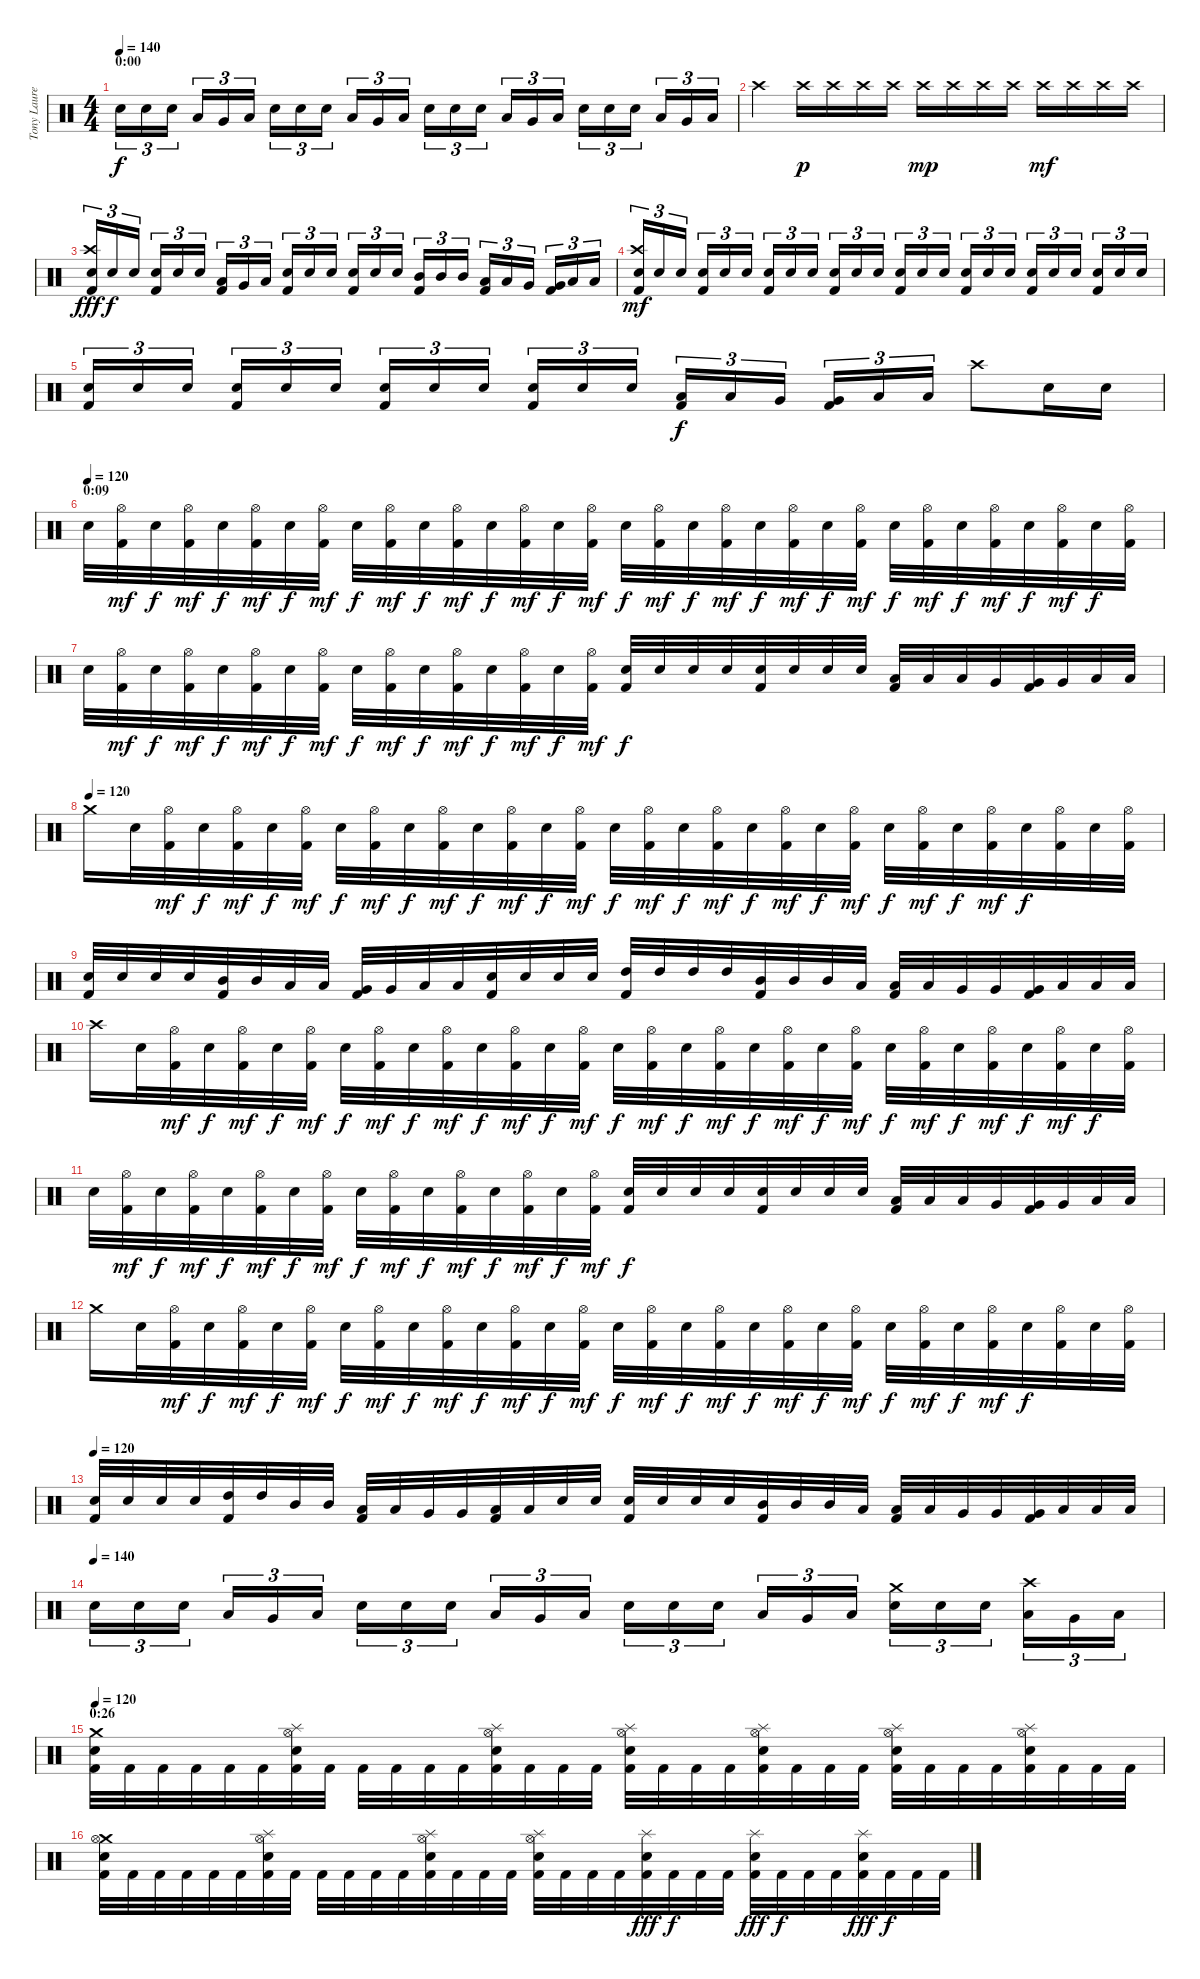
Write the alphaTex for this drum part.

\track ("Tony Laureano" "Tony Laure") {instrument percussion}
\staff {score}
\articulation defaults
\ts (4 4)
\section ("" "0:00")
\tempo 140
\clef neutral
\ks c "Electric Snare (hit)".16{tu (3 2) dy f} "Electric Snare (hit)".16{tu (3 2)} "Electric Snare (hit)".16{tu (3 2)} "Low Tom (hit)".16{tu (3 2)} "Very Low Tom (hit)".16{tu (3 2)} "Low Floor Tom (hit)".16{tu (3 2)} "Electric Snare (hit)".16{tu (3 2)} "Electric Snare (hit)".16{tu (3 2)} "Electric Snare (hit)".16{tu (3 2)} "Low Tom (hit)".16{tu (3 2)} "Very Low Tom (hit)".16{tu (3 2)} "Low Floor Tom (hit)".16{tu (3 2)} "Electric Snare (hit)".16{tu (3 2)} "Electric Snare (hit)".16{tu (3 2)} "Electric Snare (hit)".16{tu (3 2)} "Low Tom (hit)".16{tu (3 2)} "Very Low Tom (hit)".16{tu (3 2)} "Low Floor Tom (hit)".16{tu (3 2)} "Electric Snare (hit)".16{tu (3 2)} "Electric Snare (hit)".16{tu (3 2)} "Electric Snare (hit)".16{tu (3 2)} "Low Tom (hit)".16{tu (3 2)} "Very Low Tom (hit)".16{tu (3 2)} "Low Floor Tom (hit)".16{tu (3 2)}
|
"Crash high (hit)".4 "Crash high (hit)".16{dy p} "Crash high (hit)".16 "Crash high (hit)".16 "Crash high (hit)".16 "Crash high (hit)".16{dy mp} "Crash high (hit)".16 "Crash high (hit)".16 "Crash high (hit)".16 "Crash high (hit)".16{dy mf} "Crash high (hit)".16 "Crash high (hit)".16 "Crash high (hit)".16 |
("Crash high (hit)" "Electric Snare (hit)" "Kick (hit) 2").16{tu (3 2) dy fff} "Electric Snare (hit)".16{tu (3 2) dy f} "Electric Snare (hit)".16{tu (3 2)} ("Electric Snare (hit)" "Kick (hit) 2").16{tu (3 2)} "Electric Snare (hit)".16{tu (3 2)} "Electric Snare (hit)".16{tu (3 2)} ("Low Tom (hit)" "Kick (hit) 2").16{tu (3 2)} "Very Low Tom (hit)".16{tu (3 2)} "Low Floor Tom (hit)".16{tu (3 2)} ("Electric Snare (hit)" "Kick (hit) 2").16{tu (3 2)} "Electric Snare (hit)".16{tu (3 2)} "Electric Snare (hit)".16{tu (3 2)} ("Electric Snare (hit)" "Kick (hit) 2").16{tu (3 2)} "Electric Snare (hit)".16{tu (3 2)} "Electric Snare (hit)".16{tu (3 2)} ("Mid Tom (hit)" "Kick (hit) 2").16{tu (3 2)} "Mid Tom (hit)".16{tu (3 2)} "Mid Tom (hit)".16{tu (3 2)} ("Low Tom (hit)" "Kick (hit) 2").16{tu (3 2)} "Low Tom (hit)".16{tu (3 2)} "Very Low Tom (hit)".16{tu (3 2)} ("Very Low Tom (hit)" "Kick (hit) 2").16{tu (3 2)} "Low Floor Tom (hit)".16{tu (3 2)} "Low Floor Tom (hit)".16{tu (3 2)} |
("Crash high (hit)" "Electric Snare (hit)" "Kick (hit) 2").16{tu (3 2) dy mf} "Electric Snare (hit)".16{tu (3 2)} "Electric Snare (hit)".16{tu (3 2)} ("Electric Snare (hit)" "Kick (hit) 2").16{tu (3 2)} "Electric Snare (hit)".16{tu (3 2)} "Electric Snare (hit)".16{tu (3 2)} ("Electric Snare (hit)" "Kick (hit) 2").16{tu (3 2)} "Electric Snare (hit)".16{tu (3 2)} "Electric Snare (hit)".16{tu (3 2)} ("Electric Snare (hit)" "Kick (hit) 2").16{tu (3 2)} "Electric Snare (hit)".16{tu (3 2)} "Electric Snare (hit)".16{tu (3 2)} ("Electric Snare (hit)" "Kick (hit) 2").16{tu (3 2)} "Electric Snare (hit)".16{tu (3 2)} "Electric Snare (hit)".16{tu (3 2)} ("Electric Snare (hit)" "Kick (hit) 2").16{tu (3 2)} "Electric Snare (hit)".16{tu (3 2)} "Electric Snare (hit)".16{tu (3 2)} ("Electric Snare (hit)" "Kick (hit) 2").16{tu (3 2)} "Electric Snare (hit)".16{tu (3 2)} "Electric Snare (hit)".16{tu (3 2)} ("Electric Snare (hit)" "Kick (hit) 2").16{tu (3 2)} "Electric Snare (hit)".16{tu (3 2)} "Electric Snare (hit)".16{tu (3 2)} |
("Electric Snare (hit)" "Kick (hit) 2").16{tu (3 2)} "Electric Snare (hit)".16{tu (3 2)} "Electric Snare (hit)".16{tu (3 2)} ("Electric Snare (hit)" "Kick (hit) 2").16{tu (3 2)} "Electric Snare (hit)".16{tu (3 2)} "Electric Snare (hit)".16{tu (3 2)} ("Electric Snare (hit)" "Kick (hit) 2").16{tu (3 2)} "Electric Snare (hit)".16{tu (3 2)} "Electric Snare (hit)".16{tu (3 2)} ("Electric Snare (hit)" "Kick (hit) 2").16{tu (3 2)} "Electric Snare (hit)".16{tu (3 2)} "Electric Snare (hit)".16{tu (3 2)} ("Low Tom (hit)" "Kick (hit) 2").16{tu (3 2) dy f} "Low Tom (hit)".16{tu (3 2)} "Very Low Tom (hit)".16{tu (3 2)} ("Very Low Tom (hit)" "Kick (hit) 2").16{tu (3 2)} "Low Floor Tom (hit)".16{tu (3 2)} "Low Floor Tom (hit)".16{tu (3 2)} "Crash high (hit)".8 "Electric Snare (hit)".16 "Electric Snare (hit)".16 |
\section ("" "0:09")
\tempo (120)
"Electric Snare (hit)".32 ("Hi-Hat (open)" "Kick (hit) 2").32{dy mf} "Electric Snare (hit)".32{dy f} ("Hi-Hat (open)" "Kick (hit) 2").32{dy mf} "Electric Snare (hit)".32{dy f} ("Hi-Hat (open)" "Kick (hit) 2").32{dy mf} "Electric Snare (hit)".32{dy f} ("Hi-Hat (open)" "Kick (hit) 2").32{dy mf} "Electric Snare (hit)".32{dy f} ("Hi-Hat (open)" "Kick (hit) 2").32{dy mf} "Electric Snare (hit)".32{dy f} ("Hi-Hat (open)" "Kick (hit) 2").32{dy mf} "Electric Snare (hit)".32{dy f} ("Hi-Hat (open)" "Kick (hit) 2").32{dy mf} "Electric Snare (hit)".32{dy f} ("Hi-Hat (open)" "Kick (hit) 2").32{dy mf} "Electric Snare (hit)".32{dy f} ("Hi-Hat (open)" "Kick (hit) 2").32{dy mf} "Electric Snare (hit)".32{dy f} ("Hi-Hat (open)" "Kick (hit) 2").32{dy mf} "Electric Snare (hit)".32{dy f} ("Hi-Hat (open)" "Kick (hit) 2").32{dy mf} "Electric Snare (hit)".32{dy f} ("Hi-Hat (open)" "Kick (hit) 2").32{dy mf} "Electric Snare (hit)".32{dy f} ("Hi-Hat (open)" "Kick (hit) 2").32{dy mf} "Electric Snare (hit)".32{dy f} ("Hi-Hat (open)" "Kick (hit) 2").32{dy mf} "Electric Snare (hit)".32{dy f} ("Hi-Hat (open)" "Kick (hit) 2").32{dy mf} "Electric Snare (hit)".32{dy f} ("Hi-Hat (open)" "Kick (hit) 2").32 |
"Electric Snare (hit)".32 ("Hi-Hat (open)" "Kick (hit) 2").32{dy mf} "Electric Snare (hit)".32{dy f} ("Hi-Hat (open)" "Kick (hit) 2").32{dy mf} "Electric Snare (hit)".32{dy f} ("Hi-Hat (open)" "Kick (hit) 2").32{dy mf} "Electric Snare (hit)".32{dy f} ("Hi-Hat (open)" "Kick (hit) 2").32{dy mf} "Electric Snare (hit)".32{dy f} ("Hi-Hat (open)" "Kick (hit) 2").32{dy mf} "Electric Snare (hit)".32{dy f} ("Hi-Hat (open)" "Kick (hit) 2").32{dy mf} "Electric Snare (hit)".32{dy f} ("Hi-Hat (open)" "Kick (hit) 2").32{dy mf} "Electric Snare (hit)".32{dy f} ("Hi-Hat (open)" "Kick (hit) 2").32{dy mf} ("Electric Snare (hit)" "Kick (hit) 2").32{dy f} "Electric Snare (hit)".32 "Electric Snare (hit)".32 "Electric Snare (hit)".32 ("Electric Snare (hit)" "Kick (hit) 2").32 "Electric Snare (hit)".32 "Electric Snare (hit)".32 "Electric Snare (hit)".32 ("Low Tom (hit)" "Kick (hit) 2").32 "Low Tom (hit)".32 "Low Tom (hit)".32 "Very Low Tom (hit)".32 ("Very Low Tom (hit)" "Kick (hit) 2").32 "Very Low Tom (hit)".32 "Low Floor Tom (hit)".32 "Low Floor Tom (hit)".32 |
\tempo (120)
"Crash medium (hit)".16 "Electric Snare (hit)".32 ("Hi-Hat (open)" "Kick (hit) 2").32{dy mf} "Electric Snare (hit)".32{dy f} ("Hi-Hat (open)" "Kick (hit) 2").32{dy mf} "Electric Snare (hit)".32{dy f} ("Hi-Hat (open)" "Kick (hit) 2").32{dy mf} "Electric Snare (hit)".32{dy f} ("Hi-Hat (open)" "Kick (hit) 2").32{dy mf} "Electric Snare (hit)".32{dy f} ("Hi-Hat (open)" "Kick (hit) 2").32{dy mf} "Electric Snare (hit)".32{dy f} ("Hi-Hat (open)" "Kick (hit) 2").32{dy mf} "Electric Snare (hit)".32{dy f} ("Hi-Hat (open)" "Kick (hit) 2").32{dy mf} "Electric Snare (hit)".32{dy f} ("Hi-Hat (open)" "Kick (hit) 2").32{dy mf} "Electric Snare (hit)".32{dy f} ("Hi-Hat (open)" "Kick (hit) 2").32{dy mf} "Electric Snare (hit)".32{dy f} ("Hi-Hat (open)" "Kick (hit) 2").32{dy mf} "Electric Snare (hit)".32{dy f} ("Hi-Hat (open)" "Kick (hit) 2").32{dy mf} "Electric Snare (hit)".32{dy f} ("Hi-Hat (open)" "Kick (hit) 2").32{dy mf} "Electric Snare (hit)".32{dy f} ("Hi-Hat (open)" "Kick (hit) 2").32{dy mf} "Electric Snare (hit)".32{dy f} ("Hi-Hat (open)" "Kick (hit) 2").32 "Electric Snare (hit)".32 ("Hi-Hat (open)" "Kick (hit) 2").32 |
("Electric Snare (hit)" "Kick (hit) 2").32 "Electric Snare (hit)".32 "Electric Snare (hit)".32 "Electric Snare (hit)".32 ("Mid Tom (hit)" "Kick (hit) 2").32 "Mid Tom (hit)".32 "Low Tom (hit)".32 "Low Tom (hit)".32 ("Very Low Tom (hit)" "Kick (hit) 2").32 "Very Low Tom (hit)".32 "Low Floor Tom (hit)".32 "Low Floor Tom (hit)".32 ("Electric Snare (hit)" "Kick (hit) 2").32 "Electric Snare (hit)".32 "Electric Snare (hit)".32 "Electric Snare (hit)".32 ("High Tom (hit)" "Kick (hit) 2").32 "High Tom (hit)".32 "High Tom (hit)".32 "High Tom (hit)".32 ("Mid Tom (hit)" "Kick (hit) 2").32 "Mid Tom (hit)".32 "Mid Tom (hit)".32 "Low Tom (hit)".32 ("Low Tom (hit)" "Kick (hit) 2").32 "Low Tom (hit)".32 "Very Low Tom (hit)".32 "Very Low Tom (hit)".32 ("Very Low Tom (hit)" "Kick (hit) 2").32 "Low Floor Tom (hit)".32 "Low Floor Tom (hit)".32 "Low Floor Tom (hit)".32 |
"Crash high (hit)".16 "Electric Snare (hit)".32 ("Hi-Hat (open)" "Kick (hit) 2").32{dy mf} "Electric Snare (hit)".32{dy f} ("Hi-Hat (open)" "Kick (hit) 2").32{dy mf} "Electric Snare (hit)".32{dy f} ("Hi-Hat (open)" "Kick (hit) 2").32{dy mf} "Electric Snare (hit)".32{dy f} ("Hi-Hat (open)" "Kick (hit) 2").32{dy mf} "Electric Snare (hit)".32{dy f} ("Hi-Hat (open)" "Kick (hit) 2").32{dy mf} "Electric Snare (hit)".32{dy f} ("Hi-Hat (open)" "Kick (hit) 2").32{dy mf} "Electric Snare (hit)".32{dy f} ("Hi-Hat (open)" "Kick (hit) 2").32{dy mf} "Electric Snare (hit)".32{dy f} ("Hi-Hat (open)" "Kick (hit) 2").32{dy mf} "Electric Snare (hit)".32{dy f} ("Hi-Hat (open)" "Kick (hit) 2").32{dy mf} "Electric Snare (hit)".32{dy f} ("Hi-Hat (open)" "Kick (hit) 2").32{dy mf} "Electric Snare (hit)".32{dy f} ("Hi-Hat (open)" "Kick (hit) 2").32{dy mf} "Electric Snare (hit)".32{dy f} ("Hi-Hat (open)" "Kick (hit) 2").32{dy mf} "Electric Snare (hit)".32{dy f} ("Hi-Hat (open)" "Kick (hit) 2").32{dy mf} "Electric Snare (hit)".32{dy f} ("Hi-Hat (open)" "Kick (hit) 2").32{dy mf} "Electric Snare (hit)".32{dy f} ("Hi-Hat (open)" "Kick (hit) 2").32 |
"Electric Snare (hit)".32 ("Hi-Hat (open)" "Kick (hit) 2").32{dy mf} "Electric Snare (hit)".32{dy f} ("Hi-Hat (open)" "Kick (hit) 2").32{dy mf} "Electric Snare (hit)".32{dy f} ("Hi-Hat (open)" "Kick (hit) 2").32{dy mf} "Electric Snare (hit)".32{dy f} ("Hi-Hat (open)" "Kick (hit) 2").32{dy mf} "Electric Snare (hit)".32{dy f} ("Hi-Hat (open)" "Kick (hit) 2").32{dy mf} "Electric Snare (hit)".32{dy f} ("Hi-Hat (open)" "Kick (hit) 2").32{dy mf} "Electric Snare (hit)".32{dy f} ("Hi-Hat (open)" "Kick (hit) 2").32{dy mf} "Electric Snare (hit)".32{dy f} ("Hi-Hat (open)" "Kick (hit) 2").32{dy mf} ("Electric Snare (hit)" "Kick (hit) 2").32{dy f} "Electric Snare (hit)".32 "Electric Snare (hit)".32 "Electric Snare (hit)".32 ("Electric Snare (hit)" "Kick (hit) 2").32 "Electric Snare (hit)".32 "Electric Snare (hit)".32 "Electric Snare (hit)".32 ("Low Tom (hit)" "Kick (hit) 2").32 "Low Tom (hit)".32 "Low Tom (hit)".32 "Very Low Tom (hit)".32 ("Very Low Tom (hit)" "Kick (hit) 2").32 "Very Low Tom (hit)".32 "Low Floor Tom (hit)".32 "Low Floor Tom (hit)".32 |
"Crash medium (hit)".16 "Electric Snare (hit)".32 ("Hi-Hat (open)" "Kick (hit) 2").32{dy mf} "Electric Snare (hit)".32{dy f} ("Hi-Hat (open)" "Kick (hit) 2").32{dy mf} "Electric Snare (hit)".32{dy f} ("Hi-Hat (open)" "Kick (hit) 2").32{dy mf} "Electric Snare (hit)".32{dy f} ("Hi-Hat (open)" "Kick (hit) 2").32{dy mf} "Electric Snare (hit)".32{dy f} ("Hi-Hat (open)" "Kick (hit) 2").32{dy mf} "Electric Snare (hit)".32{dy f} ("Hi-Hat (open)" "Kick (hit) 2").32{dy mf} "Electric Snare (hit)".32{dy f} ("Hi-Hat (open)" "Kick (hit) 2").32{dy mf} "Electric Snare (hit)".32{dy f} ("Hi-Hat (open)" "Kick (hit) 2").32{dy mf} "Electric Snare (hit)".32{dy f} ("Hi-Hat (open)" "Kick (hit) 2").32{dy mf} "Electric Snare (hit)".32{dy f} ("Hi-Hat (open)" "Kick (hit) 2").32{dy mf} "Electric Snare (hit)".32{dy f} ("Hi-Hat (open)" "Kick (hit) 2").32{dy mf} "Electric Snare (hit)".32{dy f} ("Hi-Hat (open)" "Kick (hit) 2").32{dy mf} "Electric Snare (hit)".32{dy f} ("Hi-Hat (open)" "Kick (hit) 2").32{dy mf} "Electric Snare (hit)".32{dy f} ("Hi-Hat (open)" "Kick (hit) 2").32 "Electric Snare (hit)".32 ("Hi-Hat (open)" "Kick (hit) 2").32 |
\tempo 120
("Electric Snare (hit)" "Kick (hit) 2").32 "Electric Snare (hit)".32 "Electric Snare (hit)".32 "Electric Snare (hit)".32 ("High Tom (hit)" "Kick (hit) 2").32 "High Tom (hit)".32 "Mid Tom (hit)".32 "Mid Tom (hit)".32 ("Low Tom (hit)" "Kick (hit) 2").32 "Low Tom (hit)".32 "Very Low Tom (hit)".32 "Very Low Tom (hit)".32 ("Low Floor Tom (hit)" "Kick (hit) 2").32 "Low Floor Tom (hit)".32 "Electric Snare (hit)".32 "Electric Snare (hit)".32 ("Electric Snare (hit)" "Kick (hit) 2").32 "Electric Snare (hit)".32 "Electric Snare (hit)".32 "Electric Snare (hit)".32 ("Mid Tom (hit)" "Kick (hit) 2").32 "Mid Tom (hit)".32 "Mid Tom (hit)".32 "Low Tom (hit)".32 ("Low Tom (hit)" "Kick (hit) 2").32 "Low Tom (hit)".32 "Very Low Tom (hit)".32 "Very Low Tom (hit)".32 ("Very Low Tom (hit)" "Kick (hit) 2").32 "Low Floor Tom (hit)".32 "Low Floor Tom (hit)".32 "Low Floor Tom (hit)".32 |
\tempo (140)
"Electric Snare (hit)".16{tu (3 2)} "Electric Snare (hit)".16{tu (3 2)} "Electric Snare (hit)".16{tu (3 2)} "Low Tom (hit)".16{tu (3 2)} "Very Low Tom (hit)".16{tu (3 2)} "Low Floor Tom (hit)".16{tu (3 2)} "Electric Snare (hit)".16{tu (3 2)} "Electric Snare (hit)".16{tu (3 2)} "Electric Snare (hit)".16{tu (3 2)} "Low Tom (hit)".16{tu (3 2)} "Very Low Tom (hit)".16{tu (3 2)} "Low Floor Tom (hit)".16{tu (3 2)} "Electric Snare (hit)".16{tu (3 2)} "Electric Snare (hit)".16{tu (3 2)} "Electric Snare (hit)".16{tu (3 2)} "Low Tom (hit)".16{tu (3 2)} "Very Low Tom (hit)".16{tu (3 2)} "Low Floor Tom (hit)".16{tu (3 2)} ("Crash medium (hit)" "Electric Snare (hit)").16{tu (3 2)} "Electric Snare (hit)".16{tu (3 2)} "Electric Snare (hit)".16{tu (3 2)} ("Crash high (hit)" "Low Tom (hit)").16{tu (3 2)} "Very Low Tom (hit)".16{tu (3 2)} "Low Floor Tom (hit)".16{tu (3 2)} |
\section ("" "0:26")
\tempo 120
("Crash medium (hit)" "Electric Snare (hit)" "Kick (hit) 2").32 "Kick (hit) 2".32 "Kick (hit) 2".32 "Kick (hit) 2".32 "Kick (hit) 2".32 "Kick (hit) 2".32 ("Splash (hit)" "Hi-Hat (open)" "Electric Snare (hit)" "Kick (hit) 2").32 "Kick (hit) 2".32 "Kick (hit) 2".32 "Kick (hit) 2".32 "Kick (hit) 2".32 "Kick (hit) 2".32 ("Splash (hit)" "Hi-Hat (open)" "Electric Snare (hit)" "Kick (hit) 2").32 "Kick (hit) 2".32 "Kick (hit) 2".32 "Kick (hit) 2".32 ("Splash (hit)" "Hi-Hat (open)" "Electric Snare (hit)" "Kick (hit) 2").32 "Kick (hit) 2".32 "Kick (hit) 2".32 "Kick (hit) 2".32 ("Splash (hit)" "Hi-Hat (open)" "Electric Snare (hit)" "Kick (hit) 2").32 "Kick (hit) 2".32 "Kick (hit) 2".32 "Kick (hit) 2".32 ("Splash (hit)" "Hi-Hat (open)" "Electric Snare (hit)" "Kick (hit) 2").32 "Kick (hit) 2".32 "Kick (hit) 2".32 "Kick (hit) 2".32 ("Splash (hit)" "Hi-Hat (open)" "Electric Snare (hit)" "Kick (hit) 2").32 "Kick (hit) 2".32 "Kick (hit) 2".32 "Kick (hit) 2".32 |
("Crash medium (hit)" "Hi-Hat (open)" "Electric Snare (hit)" "Kick (hit) 2").32 "Kick (hit) 2".32 "Kick (hit) 2".32 "Kick (hit) 2".32 "Kick (hit) 2".32 "Kick (hit) 2".32 ("Splash (hit)" "Hi-Hat (open)" "Electric Snare (hit)" "Kick (hit) 2").32 "Kick (hit) 2".32 "Kick (hit) 2".32 "Kick (hit) 2".32 "Kick (hit) 2".32 "Kick (hit) 2".32 ("Splash (hit)" "Hi-Hat (open)" "Electric Snare (hit)" "Kick (hit) 2").32 "Kick (hit) 2".32 "Kick (hit) 2".32 "Kick (hit) 2".32 ("Splash (hit)" "Hi-Hat (open)" "Electric Snare (hit)" "Kick (hit) 2").32 "Kick (hit) 2".32 "Kick (hit) 2".32 "Kick (hit) 2".32 ("Splash (hit)" "Electric Snare (hit)" "Kick (hit) 2").32{dy fff} "Kick (hit) 2".32{dy f} "Kick (hit) 2".32 "Kick (hit) 2".32 ("Splash (hit)" "Electric Snare (hit)" "Kick (hit) 2").32{dy fff} "Kick (hit) 2".32{dy f} "Kick (hit) 2".32 "Kick (hit) 2".32 ("Splash (hit)" "Electric Snare (hit)" "Kick (hit) 2").32{dy fff} "Kick (hit) 2".32{dy f} "Kick (hit) 2".32 "Kick (hit) 2".32
